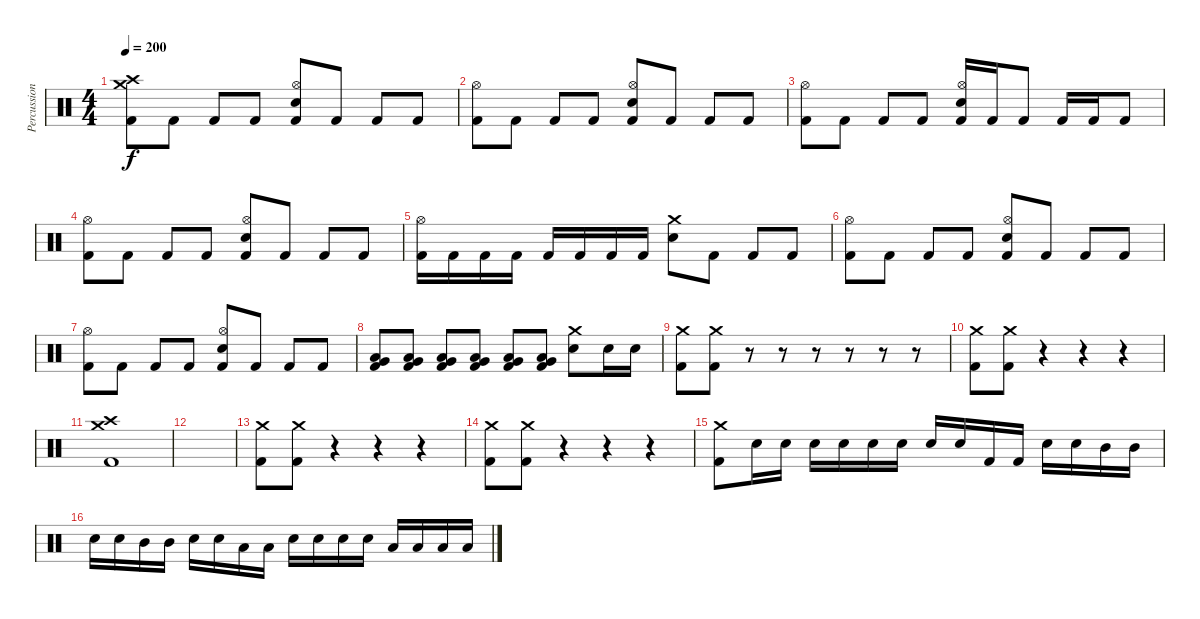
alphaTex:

\track ("Percussion" "Percussion") {instrument percussion}
\staff {score}
\articulation defaults
\ts (4 4)
\tempo 200
\clef neutral
\ks c
("Crash high (hit)" "Crash medium (hit)" "Kick (hit) 2").8{dy f} "Kick (hit) 2".8 "Kick (hit) 2".8 "Kick (hit) 2".8 ("Hi-Hat (open)" "Snare (hit) 2" "Kick (hit) 2").8 "Kick (hit) 2".8 "Kick (hit) 2".8 "Kick (hit) 2".8 |
("Hi-Hat (open)" "Kick (hit) 2").8 "Kick (hit) 2".8 "Kick (hit) 2".8 "Kick (hit) 2".8 ("Hi-Hat (open)" "Snare (hit) 2" "Kick (hit) 2").8 "Kick (hit) 2".8 "Kick (hit) 2".8 "Kick (hit) 2".8 |
("Hi-Hat (open)" "Kick (hit) 2").8 "Kick (hit) 2".8 "Kick (hit) 2".8 "Kick (hit) 2".8 ("Hi-Hat (open)" "Snare (hit) 2" "Kick (hit) 2").16 "Kick (hit) 2".16 "Kick (hit) 2".8 "Kick (hit) 2".16 "Kick (hit) 2".16 "Kick (hit) 2".8 |
("Hi-Hat (open)" "Kick (hit) 2").8 "Kick (hit) 2".8 "Kick (hit) 2".8 "Kick (hit) 2".8 ("Hi-Hat (open)" "Snare (hit) 2" "Kick (hit) 2").8 "Kick (hit) 2".8 "Kick (hit) 2".8 "Kick (hit) 2".8 |
("Hi-Hat (open)" "Kick (hit) 2").16 "Kick (hit) 2".16 "Kick (hit) 2".16 "Kick (hit) 2".16 "Kick (hit) 2".16 "Kick (hit) 2".16 "Kick (hit) 2".16 "Kick (hit) 2".16 ("Crash medium (hit)" "Snare (hit) 2").8 "Kick (hit) 2".8 "Kick (hit) 2".8 "Kick (hit) 2".8 |
("Hi-Hat (open)" "Kick (hit) 2").8 "Kick (hit) 2".8 "Kick (hit) 2".8 "Kick (hit) 2".8 ("Hi-Hat (open)" "Snare (hit) 2" "Kick (hit) 2").8 "Kick (hit) 2".8 "Kick (hit) 2".8 "Kick (hit) 2".8 |
("Hi-Hat (open)" "Kick (hit) 2").8 "Kick (hit) 2".8 "Kick (hit) 2".8 "Kick (hit) 2".8 ("Hi-Hat (open)" "Snare (hit) 2" "Kick (hit) 2").8 "Kick (hit) 2".8 "Kick (hit) 2".8 "Kick (hit) 2".8 |
("Very Low Tom (hit)" "Low Floor Tom (hit)" "Kick (hit) 2").8 ("Very Low Tom (hit)" "Low Floor Tom (hit)" "Kick (hit) 2").8 ("Very Low Tom (hit)" "Low Floor Tom (hit)" "Kick (hit) 2").8 ("Very Low Tom (hit)" "Low Floor Tom (hit)" "Kick (hit) 2").8 ("Very Low Tom (hit)" "Low Floor Tom (hit)" "Kick (hit) 2").8 ("Very Low Tom (hit)" "Low Floor Tom (hit)" "Kick (hit) 2").8 ("Crash medium (hit)" "Snare (hit) 2").8 "Snare (hit) 2".16 "Snare (hit) 2".16 |
("Crash medium (hit)" "Kick (hit) 2").8 ("Crash medium (hit)" "Kick (hit) 2").8 r.8 r.8 r.8 r.8 r.8 r.8 |
("Crash medium (hit)" "Kick (hit) 2").8 ("Crash medium (hit)" "Kick (hit) 2").8 r.4 r.4 r.4 |
("Crash high (hit)" "Crash medium (hit)" "Kick (hit) 2").1 |
|
("Crash medium (hit)" "Kick (hit) 2").8 ("Crash medium (hit)" "Kick (hit) 2").8 r.4 r.4 r.4 |
("Crash medium (hit)" "Kick (hit) 2").8 ("Crash medium (hit)" "Kick (hit) 2").8 r.4 r.4 r.4 |
("Crash medium (hit)" "Kick (hit) 2").8 "Snare (hit) 2".16 "Snare (hit) 2".16 "Snare (hit) 2".16 "Snare (hit) 2".16 "Snare (hit) 2".16 "Snare (hit) 2".16 "Snare (hit) 2".16 "Snare (hit) 2".16 "Kick (hit) 2".16 "Kick (hit) 2".16 "Snare (hit) 2".16 "Snare (hit) 2".16 "Mid Tom (hit)".16 "Mid Tom (hit)".16 |
"Snare (hit) 2".16 "Snare (hit) 2".16 "Mid Tom (hit)".16 "Mid Tom (hit)".16 "Snare (hit) 2".16 "Snare (hit) 2".16 "Low Tom (hit)".16 "Low Tom (hit)".16 "Snare (hit) 2".16 "Snare (hit) 2".16 "Snare (hit) 2".16 "Snare (hit) 2".16 "Low Tom (hit)".16 "Low Tom (hit)".16 "Low Tom (hit)".16 "Low Tom (hit)".16
